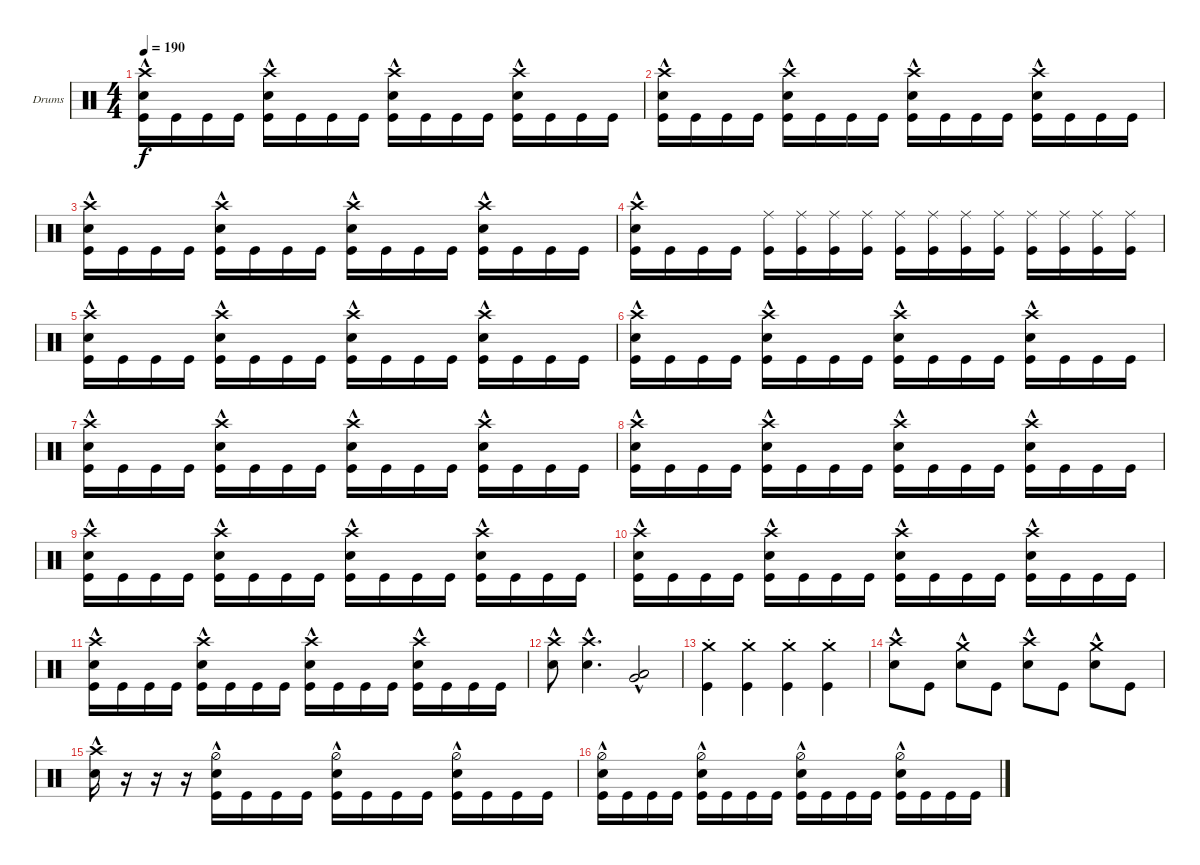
\bracketExtendMode groupsimilarinstruments
\firstSystemTrackNameOrientation horizontal
\otherSystemsTrackNameOrientation horizontal
\track ("Drumkit" "Drums") {instrument percussion}
\staff {score}
\articulation defaults
\ts (4 4)
\tempo 190
\clef neutral
\scale
0.333333
\ks c
("Kick (hit)" "Snare (hit) 2"{hac} "Crash high (hit)").16{dy f} "Kick (hit)".16 "Kick (hit)".16 "Kick (hit)".16 ("Kick (hit)" "Snare (hit) 2"{hac} "Crash high (hit)").16 "Kick (hit)".16 "Kick (hit)".16 "Kick (hit)".16 ("Kick (hit)" "Snare (hit) 2"{hac} "Crash high (hit)").16 "Kick (hit)".16 "Kick (hit)".16 "Kick (hit)".16 ("Kick (hit)" "Snare (hit) 2"{hac} "Crash high (hit)").16 "Kick (hit)".16 "Kick (hit)".16 "Kick (hit)".16 |
\scale
0.333333 ("Kick (hit)" "Snare (hit) 2"{hac} "Crash high (hit)").16 "Kick (hit)".16 "Kick (hit)".16 "Kick (hit)".16 ("Kick (hit)" "Snare (hit) 2"{hac} "Crash high (hit)").16 "Kick (hit)".16 "Kick (hit)".16 "Kick (hit)".16 ("Kick (hit)" "Snare (hit) 2"{hac} "Crash high (hit)").16 "Kick (hit)".16 "Kick (hit)".16 "Kick (hit)".16 ("Kick (hit)" "Snare (hit) 2"{hac} "Crash high (hit)").16 "Kick (hit)".16 "Kick (hit)".16 "Kick (hit)".16 |
\scale
0.333333 ("Kick (hit)" "Snare (hit) 2"{hac} "Crash high (hit)").16 "Kick (hit)".16 "Kick (hit)".16 "Kick (hit)".16 ("Kick (hit)" "Snare (hit) 2"{hac} "Crash high (hit)").16 "Kick (hit)".16 "Kick (hit)".16 "Kick (hit)".16 ("Kick (hit)" "Snare (hit) 2"{hac} "Crash high (hit)").16 "Kick (hit)".16 "Kick (hit)".16 "Kick (hit)".16 ("Kick (hit)" "Snare (hit) 2"{hac} "Crash high (hit)").16 "Kick (hit)".16 "Kick (hit)".16 "Kick (hit)".16 |
\scale
0.333333 ("Kick (hit)" "Snare (hit) 2"{hac} "Crash high (hit)").16 "Kick (hit)".16 "Kick (hit)".16 "Kick (hit)".16 ("Kick (hit)" "Ride (middle)").16 ("Kick (hit)" "Ride (middle)").16 ("Kick (hit)" "Ride (middle)").16 ("Kick (hit)" "Ride (middle)").16 ("Kick (hit)" "Ride (middle)").16 ("Kick (hit)" "Ride (middle)").16 ("Kick (hit)" "Ride (middle)").16 ("Kick (hit)" "Ride (middle)").16 ("Kick (hit)" "Ride (middle)").16 ("Kick (hit)" "Ride (middle)").16 ("Kick (hit)" "Ride (middle)").16 ("Kick (hit)" "Ride (middle)").16 |
\scale
0.333333 ("Kick (hit)" "Snare (hit) 2"{hac} "Crash high (hit)").16 "Kick (hit)".16 "Kick (hit)".16 "Kick (hit)".16 ("Kick (hit)" "Snare (hit) 2"{hac} "Crash high (hit)").16 "Kick (hit)".16 "Kick (hit)".16 "Kick (hit)".16 ("Kick (hit)" "Snare (hit) 2"{hac} "Crash high (hit)").16 "Kick (hit)".16 "Kick (hit)".16 "Kick (hit)".16 ("Kick (hit)" "Snare (hit) 2"{hac} "Crash high (hit)").16 "Kick (hit)".16 "Kick (hit)".16 "Kick (hit)".16 |
\scale
0.333333 ("Kick (hit)" "Snare (hit) 2"{hac} "Crash high (hit)").16 "Kick (hit)".16 "Kick (hit)".16 "Kick (hit)".16 ("Kick (hit)" "Snare (hit) 2"{hac} "Crash high (hit)").16 "Kick (hit)".16 "Kick (hit)".16 "Kick (hit)".16 ("Kick (hit)" "Snare (hit) 2"{hac} "Crash high (hit)").16 "Kick (hit)".16 "Kick (hit)".16 "Kick (hit)".16 ("Kick (hit)" "Snare (hit) 2"{hac} "Crash high (hit)").16 "Kick (hit)".16 "Kick (hit)".16 "Kick (hit)".16 |
\scale
0.333333 ("Kick (hit)" "Snare (hit) 2"{hac} "Crash high (hit)").16 "Kick (hit)".16 "Kick (hit)".16 "Kick (hit)".16 ("Kick (hit)" "Snare (hit) 2"{hac} "Crash high (hit)").16 "Kick (hit)".16 "Kick (hit)".16 "Kick (hit)".16 ("Kick (hit)" "Snare (hit) 2"{hac} "Crash high (hit)").16 "Kick (hit)".16 "Kick (hit)".16 "Kick (hit)".16 ("Kick (hit)" "Snare (hit) 2"{hac} "Crash high (hit)").16 "Kick (hit)".16 "Kick (hit)".16 "Kick (hit)".16 |
\scale
0.333333 ("Kick (hit)" "Snare (hit) 2"{hac} "Crash high (hit)").16 "Kick (hit)".16 "Kick (hit)".16 "Kick (hit)".16 ("Kick (hit)" "Snare (hit) 2"{hac} "Crash high (hit)").16 "Kick (hit)".16 "Kick (hit)".16 "Kick (hit)".16 ("Kick (hit)" "Snare (hit) 2"{hac} "Crash high (hit)").16 "Kick (hit)".16 "Kick (hit)".16 "Kick (hit)".16 ("Kick (hit)" "Snare (hit) 2"{hac} "Crash high (hit)").16 "Kick (hit)".16 "Kick (hit)".16 "Kick (hit)".16 |
\scale
0.333333 ("Kick (hit)" "Snare (hit) 2"{hac} "Crash high (hit)").16 "Kick (hit)".16 "Kick (hit)".16 "Kick (hit)".16 ("Kick (hit)" "Snare (hit) 2"{hac} "Crash high (hit)").16 "Kick (hit)".16 "Kick (hit)".16 "Kick (hit)".16 ("Kick (hit)" "Snare (hit) 2"{hac} "Crash high (hit)").16 "Kick (hit)".16 "Kick (hit)".16 "Kick (hit)".16 ("Kick (hit)" "Snare (hit) 2"{hac} "Crash high (hit)").16 "Kick (hit)".16 "Kick (hit)".16 "Kick (hit)".16 |
\scale
0.333333 ("Kick (hit)" "Snare (hit) 2"{hac} "Crash high (hit)").16 "Kick (hit)".16 "Kick (hit)".16 "Kick (hit)".16 ("Kick (hit)" "Snare (hit) 2"{hac} "Crash high (hit)").16 "Kick (hit)".16 "Kick (hit)".16 "Kick (hit)".16 ("Kick (hit)" "Snare (hit) 2"{hac} "Crash high (hit)").16 "Kick (hit)".16 "Kick (hit)".16 "Kick (hit)".16 ("Kick (hit)" "Snare (hit) 2"{hac} "Crash high (hit)").16 "Kick (hit)".16 "Kick (hit)".16 "Kick (hit)".16 |
\scale
0.333333 ("Kick (hit)" "Snare (hit) 2"{hac} "Crash high (hit)").16 "Kick (hit)".16 "Kick (hit)".16 "Kick (hit)".16 ("Kick (hit)" "Snare (hit) 2"{hac} "Crash high (hit)").16 "Kick (hit)".16 "Kick (hit)".16 "Kick (hit)".16 ("Kick (hit)" "Snare (hit) 2"{hac} "Crash high (hit)").16 "Kick (hit)".16 "Kick (hit)".16 "Kick (hit)".16 ("Kick (hit)" "Snare (hit) 2"{hac} "Crash high (hit)").16 "Kick (hit)".16 "Kick (hit)".16 "Kick (hit)".16 |
\scale
0.333333 ("Snare (hit) 2"{hac} "Crash high (hit)").8 ("Snare (hit) 2"{hac} "Crash high (hit)").4{d} ("Very Low Tom (hit)"{hac} "Low Tom (hit)"{hac}).2 |
\scale
0.333333 ("Kick (hit)" "Crash medium (hit)"{st}).4 ("Kick (hit)" "Crash medium (hit)"{st}).4 ("Kick (hit)" "Crash medium (hit)"{st}).4 ("Kick (hit)" "Crash medium (hit)"{st}).4 |
\scale
0.333333 ("Snare (hit) 2"{hac} "Crash high (hit)").8 "Kick (hit)".8 ("Snare (hit) 2"{hac} "Crash medium (hit)").8 "Kick (hit)".8 ("Snare (hit) 2"{hac} "Crash high (hit)").8 "Kick (hit)".8 ("Snare (hit) 2"{hac} "Crash medium (hit)").8 "Kick (hit)".8 |
\scale
0.333333 ("Snare (hit) 2"{hac} "Crash high (hit)").16 r.16 r.16 r.16 ("Kick (hit)" "Snare (hit) 2"{hac} "Hi-Hat (half)").16 "Kick (hit)".16 "Kick (hit)".16 "Kick (hit)".16 ("Kick (hit)" "Snare (hit) 2"{hac} "Hi-Hat (half)").16 "Kick (hit)".16 "Kick (hit)".16 "Kick (hit)".16 ("Kick (hit)" "Snare (hit) 2"{hac} "Hi-Hat (half)").16 "Kick (hit)".16 "Kick (hit)".16 "Kick (hit)".16 |
\scale
0.333333 ("Kick (hit)" "Snare (hit) 2"{hac} "Hi-Hat (half)").16 "Kick (hit)".16 "Kick (hit)".16 "Kick (hit)".16 ("Kick (hit)" "Snare (hit) 2"{hac} "Hi-Hat (half)").16 "Kick (hit)".16 "Kick (hit)".16 "Kick (hit)".16 ("Kick (hit)" "Snare (hit) 2"{hac} "Hi-Hat (half)").16 "Kick (hit)".16 "Kick (hit)".16 "Kick (hit)".16 ("Kick (hit)" "Snare (hit) 2"{hac} "Hi-Hat (half)").16 "Kick (hit)".16 "Kick (hit)".16 "Kick (hit)".16
